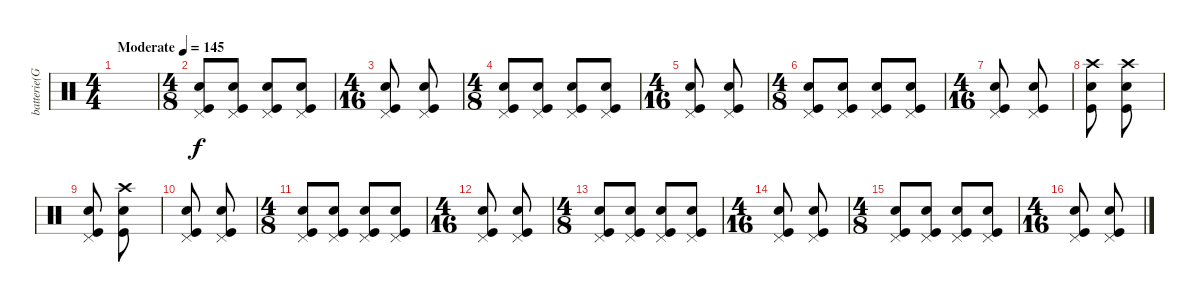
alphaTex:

\track ("batterie(Granberg)" "batterie(G") {instrument percussion}
\staff {score}
\articulation defaults
\ts (4 4)
\tempo (145 "Moderate")
\clef neutral
\ks c
|
\ts (4 8)
("Pedal Hi-Hat (hit)" "Snare (hit) 2" "Kick (hit)").8 ("Pedal Hi-Hat (hit)" "Snare (hit) 2" "Kick (hit)").8 ("Pedal Hi-Hat (hit)" "Snare (hit) 2" "Kick (hit)").8 ("Pedal Hi-Hat (hit)" "Snare (hit) 2" "Kick (hit)").8 |
\ts (4 16)
("Pedal Hi-Hat (hit)" "Snare (hit) 2" "Kick (hit)").8 ("Pedal Hi-Hat (hit)" "Snare (hit) 2" "Kick (hit)").8 |
\ts (4 8)
("Pedal Hi-Hat (hit)" "Snare (hit) 2" "Kick (hit)").8 ("Pedal Hi-Hat (hit)" "Snare (hit) 2" "Kick (hit)").8 ("Pedal Hi-Hat (hit)" "Snare (hit) 2" "Kick (hit)").8 ("Pedal Hi-Hat (hit)" "Snare (hit) 2" "Kick (hit)").8 |
\ts (4 16)
("Pedal Hi-Hat (hit)" "Snare (hit) 2" "Kick (hit)").8 ("Pedal Hi-Hat (hit)" "Snare (hit) 2" "Kick (hit)").8 |
\ts (4 8)
("Pedal Hi-Hat (hit)" "Snare (hit) 2" "Kick (hit)").8 ("Pedal Hi-Hat (hit)" "Snare (hit) 2" "Kick (hit)").8 ("Pedal Hi-Hat (hit)" "Snare (hit) 2" "Kick (hit)").8 ("Pedal Hi-Hat (hit)" "Snare (hit) 2" "Kick (hit)").8 |
\ts (4 16)
("Pedal Hi-Hat (hit)" "Snare (hit) 2" "Kick (hit)").8 ("Pedal Hi-Hat (hit)" "Snare (hit) 2" "Kick (hit)").8 |
("Crash high (hit)" "Snare (hit) 2" "Kick (hit)").8 ("Crash high (hit)" "Snare (hit) 2" "Kick (hit)").8 |
("Pedal Hi-Hat (hit)" "Snare (hit) 2" "Kick (hit)").8 ("Crash high (hit)" "Snare (hit) 2" "Kick (hit)").8 |
("Pedal Hi-Hat (hit)" "Snare (hit) 2" "Kick (hit)").8 ("Pedal Hi-Hat (hit)" "Snare (hit) 2" "Kick (hit)").8 |
\ts (4 8)
("Pedal Hi-Hat (hit)" "Snare (hit) 2" "Kick (hit)").8 ("Pedal Hi-Hat (hit)" "Snare (hit) 2" "Kick (hit)").8 ("Pedal Hi-Hat (hit)" "Snare (hit) 2" "Kick (hit)").8 ("Pedal Hi-Hat (hit)" "Snare (hit) 2" "Kick (hit)").8 |
\ts (4 16)
("Pedal Hi-Hat (hit)" "Snare (hit) 2" "Kick (hit)").8 ("Pedal Hi-Hat (hit)" "Snare (hit) 2" "Kick (hit)").8 |
\ts (4 8)
("Pedal Hi-Hat (hit)" "Snare (hit) 2" "Kick (hit)").8 ("Pedal Hi-Hat (hit)" "Snare (hit) 2" "Kick (hit)").8 ("Pedal Hi-Hat (hit)" "Snare (hit) 2" "Kick (hit)").8 ("Pedal Hi-Hat (hit)" "Snare (hit) 2" "Kick (hit)").8 |
\ts (4 16)
("Pedal Hi-Hat (hit)" "Snare (hit) 2" "Kick (hit)").8 ("Pedal Hi-Hat (hit)" "Snare (hit) 2" "Kick (hit)").8 |
\ts (4 8)
("Pedal Hi-Hat (hit)" "Snare (hit) 2" "Kick (hit)").8 ("Pedal Hi-Hat (hit)" "Snare (hit) 2" "Kick (hit)").8 ("Pedal Hi-Hat (hit)" "Snare (hit) 2" "Kick (hit)").8 ("Pedal Hi-Hat (hit)" "Snare (hit) 2" "Kick (hit)").8 |
\ts (4 16)
("Pedal Hi-Hat (hit)" "Snare (hit) 2" "Kick (hit)").8 ("Pedal Hi-Hat (hit)" "Snare (hit) 2" "Kick (hit)").8
